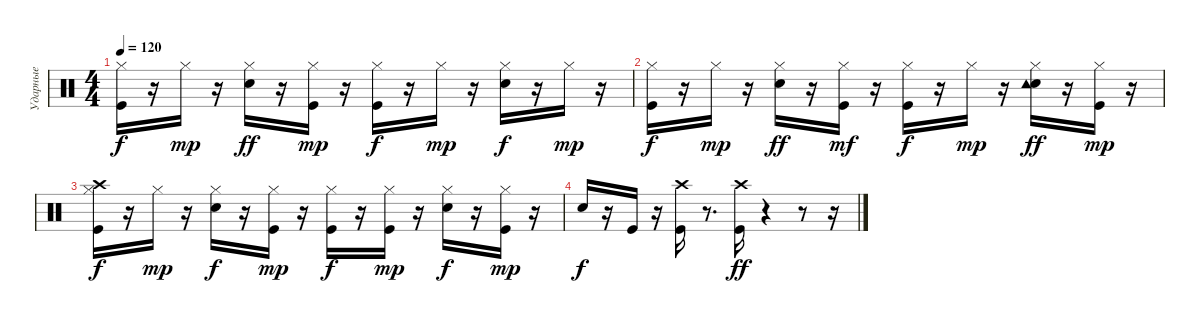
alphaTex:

\track ("Ударные" "Ударные") {instrument percussion}
\staff {score}
\articulation defaults
\ts (4 4)
\tempo 120
\clef neutral
\ks c
("Kick (hit)" "Hi-Hat (closed)").16{dy f} r.16 "Hi-Hat (closed)".16{dy mp} r.16 ("Snare (hit) 2" "Hi-Hat (closed)").16{dy ff} r.16 ("Kick (hit)" "Hi-Hat (closed)").16{dy mp} r.16 ("Kick (hit)" "Hi-Hat (closed)").16{dy f} r.16 "Hi-Hat (closed)".16{dy mp} r.16 ("Snare (hit) 2" "Hi-Hat (closed)").16{dy f} r.16 "Hi-Hat (closed)".16{dy mp} r.16 |
("Kick (hit)" "Hi-Hat (closed)").16{dy f} r.16 "Hi-Hat (closed)".16{dy mp} r.16 ("Snare (hit) 2" "Hi-Hat (closed)").16{dy ff} r.16 ("Kick (hit)" "Hi-Hat (closed)").16{dy mf} r.16 ("Kick (hit)" "Hi-Hat (closed)").16{dy f} r.16 "Hi-Hat (closed)".16{dy mp} r.16 ("Snare (hit) 2" "Hi-Hat (closed)" "Tambourine (hit)").16{dy ff} r.16 ("Kick (hit)" "Hi-Hat (closed)").16{dy mp} r.16 |
("Kick (hit)" "Hi-Hat (closed)" "Crash high (hit)").16{dy f} r.16 "Hi-Hat (closed)".16{dy mp} r.16 ("Snare (hit) 2" "Hi-Hat (closed)").16{dy f} r.16 ("Kick (hit)" "Hi-Hat (closed)").16{dy mp} r.16 ("Kick (hit)" "Hi-Hat (closed)").16{dy f} r.16 ("Kick (hit)" "Hi-Hat (closed)").16{dy mp} r.16 ("Snare (hit) 2" "Hi-Hat (closed)").16{dy f} r.16 ("Kick (hit)" "Hi-Hat (closed)").16{dy mp} r.16 |
"Snare (hit) 2".16{dy f} r.16 "Kick (hit)".16 r.16 ("Kick (hit)" "Crash high (hit)").16 r.8{d} ("Kick (hit)" "Crash high (hit)").16{dy ff} r.4 r.8 r.16
